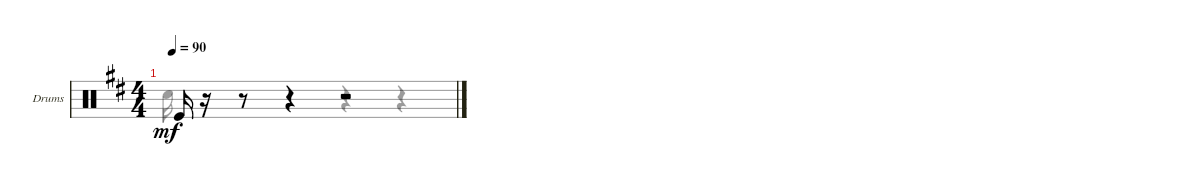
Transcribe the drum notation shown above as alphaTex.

\defaultSystemsLayout 4
\bracketExtendMode groupsimilarinstruments
\firstSystemTrackNameOrientation horizontal
\otherSystemsTrackNameOrientation horizontal
\track ("Drumkit" "Drums") {instrument percussion}
\staff {score}
\articulation defaults
\voice
\ts (4 4)
\tempo 90
\clef neutral
\ks bminor "Kick (hit)".16{dy mf}
r.16 r.8 r.4 r.2
\voice
\clef neutral
\ottava regular
\simile none
\ks bminor "Snare (hit) 2".16{dy mf}
r.16 r.8 r.4 r.4 r.4
